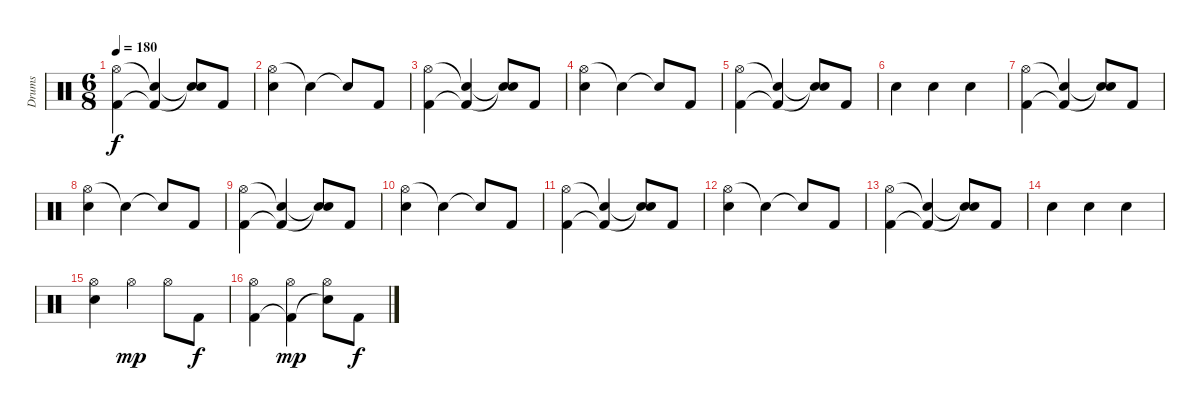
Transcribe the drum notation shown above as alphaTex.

\track ("Drums" "Drums") {instrument percussion}
\staff {score}
\articulation defaults
\ts (6 8)
\tempo 180
\clef neutral
\ks c
("Hi-Hat (open)" "Kick (hit) 2").4{dy f} ("Snare (hit)"{t} "Kick (hit) 2"{t}).4 ("Snare (hit)"{t} "Snare (hit)"{t}).8 "Kick (hit) 2".8 |
("Hi-Hat (open)" "Snare (hit) 2").4 "Snare (hit)"{t}.4 "Snare (hit)"{t}.8 "Kick (hit) 2".8 |
("Hi-Hat (open)" "Kick (hit) 2").4 ("Snare (hit)"{t} "Kick (hit) 2"{t}).4 ("Snare (hit)"{t} "Snare (hit)"{t}).8 "Kick (hit) 2".8 |
("Hi-Hat (open)" "Snare (hit) 2").4 "Snare (hit)"{t}.4 "Snare (hit)"{t}.8 "Kick (hit) 2".8 |
("Hi-Hat (open)" "Kick (hit) 2").4 ("Snare (hit)"{t} "Kick (hit) 2"{t}).4 ("Snare (hit)"{t} "Snare (hit)"{t}).8 "Kick (hit) 2".8 |
"Electric Snare (hit)".4 "Electric Snare (hit)".4 "Electric Snare (hit)".4 |
("Hi-Hat (open)" "Kick (hit) 2").4 ("Snare (hit)"{t} "Kick (hit) 2"{t}).4 ("Snare (hit)"{t} "Snare (hit)"{t}).8 "Kick (hit) 2".8 |
("Hi-Hat (open)" "Snare (hit) 2").4 "Snare (hit)"{t}.4 "Snare (hit)"{t}.8 "Kick (hit) 2".8 |
("Hi-Hat (open)" "Kick (hit) 2").4 ("Snare (hit)"{t} "Kick (hit) 2"{t}).4 ("Snare (hit)"{t} "Snare (hit)"{t}).8 "Kick (hit) 2".8 |
("Hi-Hat (open)" "Snare (hit) 2").4 "Snare (hit)"{t}.4 "Snare (hit)"{t}.8 "Kick (hit) 2".8 |
("Hi-Hat (open)" "Kick (hit) 2").4 ("Snare (hit)"{t} "Kick (hit) 2"{t}).4 ("Snare (hit)"{t} "Snare (hit)"{t}).8 "Kick (hit) 2".8 |
("Hi-Hat (open)" "Snare (hit) 2").4 "Snare (hit)"{t}.4 "Snare (hit)"{t}.8 "Kick (hit) 2".8 |
("Hi-Hat (open)" "Kick (hit) 2").4 ("Snare (hit)"{t} "Kick (hit) 2"{t}).4 ("Snare (hit)"{t} "Snare (hit)"{t}).8 "Kick (hit) 2".8 |
"Electric Snare (hit)".4 "Electric Snare (hit)".4 "Electric Snare (hit)".4 |
("Hi-Hat (open)" "Snare (hit) 2").4 "Hi-Hat (open)".4{dy mp} "Hi-Hat (open)".8 "Kick (hit) 2".8{dy f} |
("Hi-Hat (open)" "Kick (hit) 2").4 ("Hi-Hat (open)" "Kick (hit) 2"{t}).4{dy mp} ("Hi-Hat (open)" "Snare (hit)"{t}).8 "Kick (hit) 2".8{dy f}
